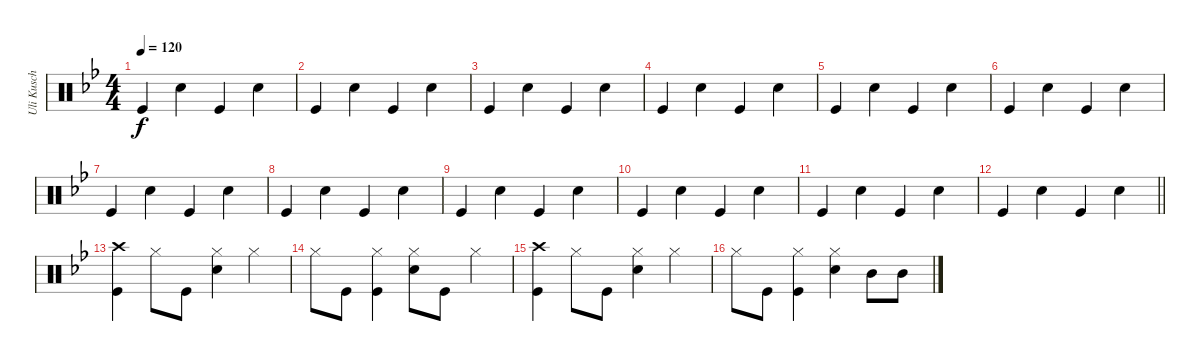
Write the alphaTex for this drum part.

\track ("Uli Kusch" "Uli Kusch") {instrument percussion}
\staff {score}
\articulation defaults
\ts (4 4)
\tempo 120
\clef neutral
\ks gminor "Kick (hit)".4{dy f} "Snare (hit) 2".4 "Kick (hit)".4 "Snare (hit) 2".4
|
"Kick (hit)".4 "Snare (hit) 2".4 "Kick (hit)".4 "Snare (hit) 2".4 |
"Kick (hit)".4 "Snare (hit) 2".4 "Kick (hit)".4 "Snare (hit) 2".4 |
"Kick (hit)".4 "Snare (hit) 2".4 "Kick (hit)".4 "Snare (hit) 2".4 |
"Kick (hit)".4 "Snare (hit) 2".4 "Kick (hit)".4 "Snare (hit) 2".4 |
"Kick (hit)".4 "Snare (hit) 2".4 "Kick (hit)".4 "Snare (hit) 2".4 |
"Kick (hit)".4 "Snare (hit) 2".4 "Kick (hit)".4 "Snare (hit) 2".4 |
"Kick (hit)".4 "Snare (hit) 2".4 "Kick (hit)".4 "Snare (hit) 2".4 |
"Kick (hit)".4 "Snare (hit) 2".4 "Kick (hit)".4 "Snare (hit) 2".4 |
"Kick (hit)".4 "Snare (hit) 2".4 "Kick (hit)".4 "Snare (hit) 2".4 |
"Kick (hit)".4 "Snare (hit) 2".4 "Kick (hit)".4 "Snare (hit) 2".4 |
\barLineRight lightlight "Kick (hit)".4 "Snare (hit) 2".4 "Kick (hit)".4 "Snare (hit) 2".4
|
("Crash high (hit)" "Kick (hit)").4 "Hi-Hat (closed)".8 "Kick (hit)".8 ("Hi-Hat (closed)" "Snare (hit) 2").4 "Hi-Hat (closed)".4 |
"Hi-Hat (closed)".8 "Kick (hit)".8 ("Hi-Hat (closed)" "Kick (hit)").4 ("Hi-Hat (closed)" "Snare (hit) 2").8 "Kick (hit)".8 "Hi-Hat (closed)".4 |
("Crash high (hit)" "Kick (hit)").4 "Hi-Hat (closed)".8 "Kick (hit)".8 ("Hi-Hat (closed)" "Snare (hit) 2").4 "Hi-Hat (closed)".4 |
"Hi-Hat (closed)".8 "Kick (hit)".8 ("Hi-Hat (closed)" "Kick (hit)").4 ("Hi-Hat (closed)" "Snare (hit) 2").4 "Mid Tom (hit)".8 "Mid Tom (hit)".8
